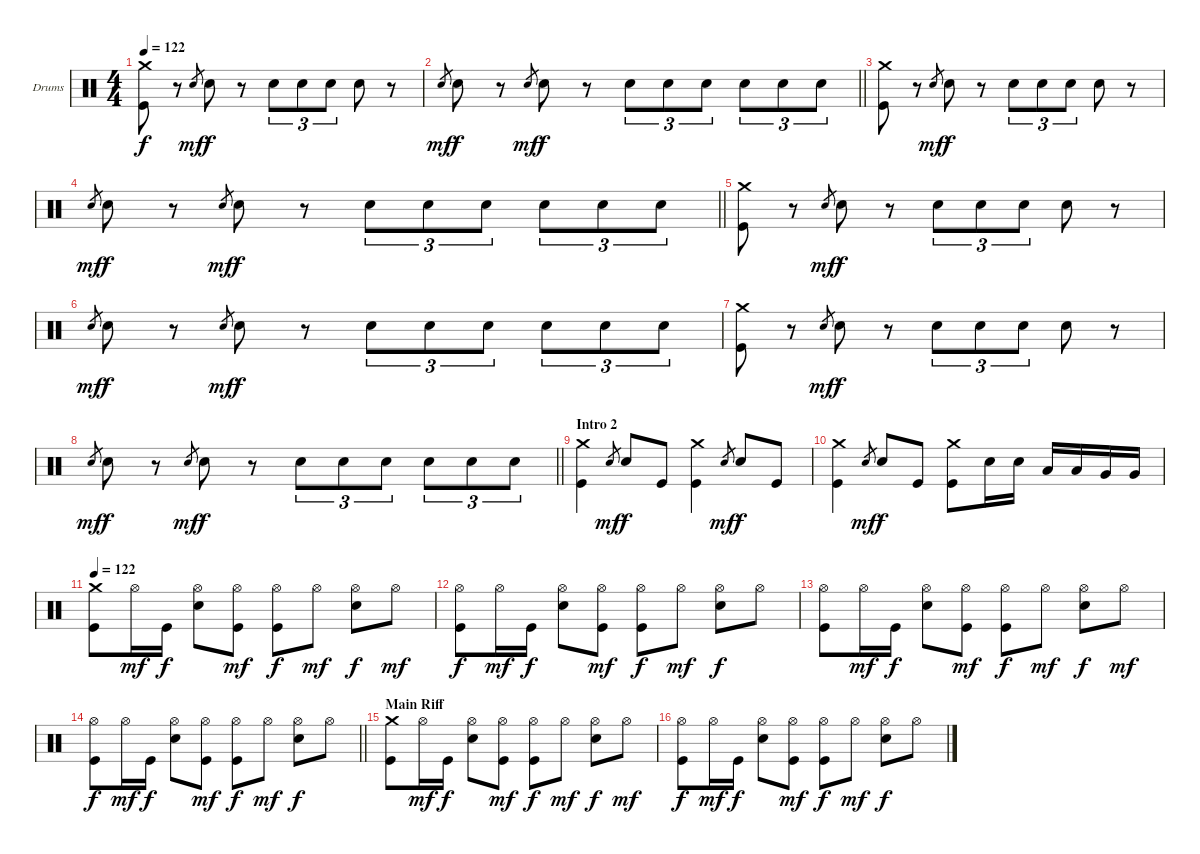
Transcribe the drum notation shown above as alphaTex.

\bracketExtendMode groupsimilarinstruments
\firstSystemTrackNameOrientation horizontal
\otherSystemsTrackNameOrientation horizontal
\track ("Drumkit" "Drums") {instrument percussion}
\staff {score}
\articulation defaults
\ts (4 4)
\tempo 122
\clef neutral
\ks c
("Crash medium (hit)" "Kick (hit)").8{dy f} r.8 "Snare (hit) 2".8{gr dy mf} "Snare (hit) 2".8{dy f} r.8 "Snare (hit) 2".8{tu (3 2)} "Snare (hit) 2".8{tu (3 2)} "Snare (hit) 2".8{tu (3 2)} "Snare (hit) 2".8 r.8 |
\barLineRight lightlight "Snare (hit) 2".8{gr dy mf} "Snare (hit) 2".8{dy f}
r.8 "Snare (hit) 2".8{gr dy mf} "Snare (hit) 2".8{dy f} r.8 "Snare (hit) 2".8{tu (3 2)} "Snare (hit) 2".8{tu (3 2)} "Snare (hit) 2".8{tu (3 2)} "Snare (hit) 2".8{tu (3 2)} "Snare (hit) 2".8{tu (3 2)} "Snare (hit) 2".8{tu (3 2)} |
("Crash medium (hit)" "Kick (hit)").8 r.8 "Snare (hit) 2".8{gr dy mf} "Snare (hit) 2".8{dy f} r.8 "Snare (hit) 2".8{tu (3 2)} "Snare (hit) 2".8{tu (3 2)} "Snare (hit) 2".8{tu (3 2)} "Snare (hit) 2".8 r.8 |
\barLineRight lightlight "Snare (hit) 2".8{gr dy mf} "Snare (hit) 2".8{dy f}
r.8 "Snare (hit) 2".8{gr dy mf} "Snare (hit) 2".8{dy f} r.8 "Snare (hit) 2".8{tu (3 2)} "Snare (hit) 2".8{tu (3 2)} "Snare (hit) 2".8{tu (3 2)} "Snare (hit) 2".8{tu (3 2)} "Snare (hit) 2".8{tu (3 2)} "Snare (hit) 2".8{tu (3 2)} |
("Crash medium (hit)" "Kick (hit)").8 r.8 "Snare (hit) 2".8{gr dy mf} "Snare (hit) 2".8{dy f} r.8 "Snare (hit) 2".8{tu (3 2)} "Snare (hit) 2".8{tu (3 2)} "Snare (hit) 2".8{tu (3 2)} "Snare (hit) 2".8 r.8 |
"Snare (hit) 2".8{gr dy mf} "Snare (hit) 2".8{dy f} r.8 "Snare (hit) 2".8{gr dy mf} "Snare (hit) 2".8{dy f} r.8 "Snare (hit) 2".8{tu (3 2)} "Snare (hit) 2".8{tu (3 2)} "Snare (hit) 2".8{tu (3 2)} "Snare (hit) 2".8{tu (3 2)} "Snare (hit) 2".8{tu (3 2)} "Snare (hit) 2".8{tu (3 2)} |
("Crash medium (hit)" "Kick (hit)").8 r.8 "Snare (hit) 2".8{gr dy mf} "Snare (hit) 2".8{dy f} r.8 "Snare (hit) 2".8{tu (3 2)} "Snare (hit) 2".8{tu (3 2)} "Snare (hit) 2".8{tu (3 2)} "Snare (hit) 2".8 r.8 |
\barLineRight lightlight "Snare (hit) 2".8{gr dy mf} "Snare (hit) 2".8{dy f}
r.8 "Snare (hit) 2".8{gr dy mf} "Snare (hit) 2".8{dy f} r.8 "Snare (hit) 2".8{tu (3 2)} "Snare (hit) 2".8{tu (3 2)} "Snare (hit) 2".8{tu (3 2)} "Snare (hit) 2".8{tu (3 2)} "Snare (hit) 2".8{tu (3 2)} "Snare (hit) 2".8{tu (3 2)} |
\section ("" "Intro 2")
("Crash medium (hit)" "Kick (hit)").4 "Snare (hit) 2".8{gr dy mf} "Snare (hit) 2".8{dy f} "Kick (hit)".8 ("Crash medium (hit)" "Kick (hit)").4 "Snare (hit) 2".8{gr dy mf} "Snare (hit) 2".8{dy f} "Kick (hit)".8 |
("Crash medium (hit)" "Kick (hit)").4 "Snare (hit) 2".8{gr dy mf} "Snare (hit) 2".8{dy f} "Kick (hit)".8 ("Crash medium (hit)" "Kick (hit)").8 "Snare (hit) 2".16 "Snare (hit) 2".16 "Low Tom (hit)".16 "Low Tom (hit)".16 "Very Low Tom (hit)".16 "Very Low Tom (hit)".16 |
\tempo 122
("Crash medium (hit)" "Kick (hit)").8 "Hi-Hat (open)".16{dy mf} "Kick (hit)".16{dy f} ("Hi-Hat (open)" "Snare (hit) 2").8 ("Hi-Hat (open)" "Kick (hit)").8{dy mf} ("Hi-Hat (open)" "Kick (hit)").8{dy f} "Hi-Hat (open)".8{dy mf} ("Hi-Hat (open)" "Snare (hit) 2").8{dy f} "Hi-Hat (open)".8{dy mf} |
("Hi-Hat (open)" "Kick (hit)").8{dy f} "Hi-Hat (open)".16{dy mf} "Kick (hit)".16{dy f} ("Hi-Hat (open)" "Snare (hit) 2").8 ("Hi-Hat (open)" "Kick (hit)").8{dy mf} ("Hi-Hat (open)" "Kick (hit)").8{dy f} "Hi-Hat (open)".8{dy mf} ("Hi-Hat (open)" "Snare (hit) 2").8{dy f} "Hi-Hat (open)".8 |
("Hi-Hat (open)" "Kick (hit)").8 "Hi-Hat (open)".16{dy mf} "Kick (hit)".16{dy f} ("Hi-Hat (open)" "Snare (hit) 2").8 ("Hi-Hat (open)" "Kick (hit)").8{dy mf} ("Hi-Hat (open)" "Kick (hit)").8{dy f} "Hi-Hat (open)".8{dy mf} ("Hi-Hat (open)" "Snare (hit) 2").8{dy f} "Hi-Hat (open)".8{dy mf} |
\barLineRight lightlight
("Hi-Hat (open)" "Kick (hit)").8{dy f} "Hi-Hat (open)".16{dy mf} "Kick (hit)".16{dy f} ("Hi-Hat (open)" "Snare (hit) 2").8 ("Hi-Hat (open)" "Kick (hit)").8{dy mf} ("Hi-Hat (open)" "Kick (hit)").8{dy f} "Hi-Hat (open)".8{dy mf} ("Hi-Hat (open)" "Snare (hit) 2").8{dy f} "Hi-Hat (open)".8 |
\section ("" "Main Riff")
("Crash medium (hit)" "Kick (hit)").8 "Hi-Hat (open)".16{dy mf} "Kick (hit)".16{dy f} ("Hi-Hat (open)" "Snare (hit) 2").8 ("Hi-Hat (open)" "Kick (hit)").8{dy mf} ("Hi-Hat (open)" "Kick (hit)").8{dy f} "Hi-Hat (open)".8{dy mf} ("Hi-Hat (open)" "Snare (hit) 2").8{dy f} "Hi-Hat (open)".8{dy mf} |
("Hi-Hat (open)" "Kick (hit)").8{dy f} "Hi-Hat (open)".16{dy mf} "Kick (hit)".16{dy f} ("Hi-Hat (open)" "Snare (hit) 2").8 ("Hi-Hat (open)" "Kick (hit)").8{dy mf} ("Hi-Hat (open)" "Kick (hit)").8{dy f} "Hi-Hat (open)".8{dy mf} ("Hi-Hat (open)" "Snare (hit) 2").8{dy f} "Hi-Hat (open)".8
